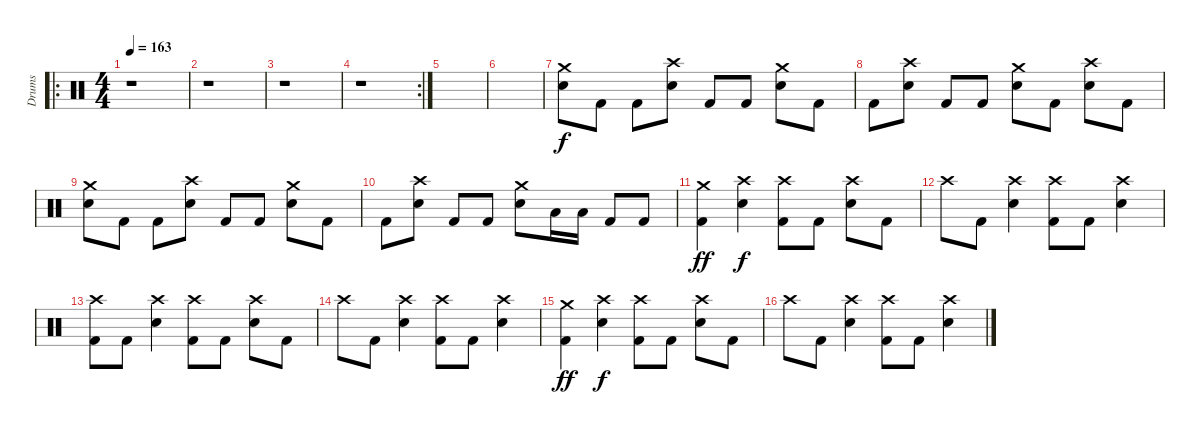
\track ("Drums" "Drums") {instrument percussion}
\staff {score}
\articulation defaults
\ro
\ts (4 4)
\tempo 163
\clef neutral
\ks c
r.1{dy f} |
r.1 |
r.1 |
\rc 2
r.1 |
|
|
("Crash medium (hit)" "Snare (hit) 2").8 "Kick (hit) 2".8 "Kick (hit) 2".8 ("Crash high (hit)" "Snare (hit) 2").8 "Kick (hit) 2".8 "Kick (hit) 2".8 ("Crash medium (hit)" "Snare (hit) 2").8 "Kick (hit) 2".8 |
"Kick (hit) 2".8 ("Crash high (hit)" "Snare (hit) 2").8 "Kick (hit) 2".8 "Kick (hit) 2".8 ("Crash medium (hit)" "Snare (hit) 2").8 "Kick (hit) 2".8 ("Crash high (hit)" "Snare (hit) 2").8 "Kick (hit) 2".8 |
("Crash medium (hit)" "Snare (hit) 2").8 "Kick (hit) 2".8 "Kick (hit) 2".8 ("Crash high (hit)" "Snare (hit) 2").8 "Kick (hit) 2".8 "Kick (hit) 2".8 ("Crash medium (hit)" "Snare (hit) 2").8 "Kick (hit) 2".8 |
"Kick (hit) 2".8 ("Crash high (hit)" "Snare (hit) 2").8 "Kick (hit) 2".8 "Kick (hit) 2".8 ("Crash medium (hit)" "Snare (hit) 2").8 "Low Tom (hit)".16 "Low Tom (hit)".16 "Kick (hit) 2".8 "Kick (hit) 2".8 |
("Crash medium (hit)" "Kick (hit) 2").4{dy ff} ("Crash high (hit)" "Snare (hit) 2").4{dy f} ("Crash high (hit)" "Kick (hit) 2").8 "Kick (hit) 2".8 ("Crash high (hit)" "Snare (hit) 2").8 "Kick (hit) 2".8 |
"Crash high (hit)".8 "Kick (hit) 2".8 ("Crash high (hit)" "Snare (hit) 2").4 ("Crash high (hit)" "Kick (hit) 2").8 "Kick (hit) 2".8 ("Crash high (hit)" "Snare (hit) 2").4 |
("Crash high (hit)" "Kick (hit) 2").8 "Kick (hit) 2".8 ("Crash high (hit)" "Snare (hit) 2").4 ("Crash high (hit)" "Kick (hit) 2").8 "Kick (hit) 2".8 ("Crash high (hit)" "Snare (hit) 2").8 "Kick (hit) 2".8 |
"Crash high (hit)".8 "Kick (hit) 2".8 ("Crash high (hit)" "Snare (hit) 2").4 ("Crash high (hit)" "Kick (hit) 2").8 "Kick (hit) 2".8 ("Crash high (hit)" "Snare (hit) 2").4 |
("Crash medium (hit)" "Kick (hit) 2").4{dy ff} ("Crash high (hit)" "Snare (hit) 2").4{dy f} ("Crash high (hit)" "Kick (hit) 2").8 "Kick (hit) 2".8 ("Crash high (hit)" "Snare (hit) 2").8 "Kick (hit) 2".8 |
"Crash high (hit)".8 "Kick (hit) 2".8 ("Crash high (hit)" "Snare (hit) 2").4 ("Crash high (hit)" "Kick (hit) 2").8 "Kick (hit) 2".8 ("Crash high (hit)" "Snare (hit) 2").4
